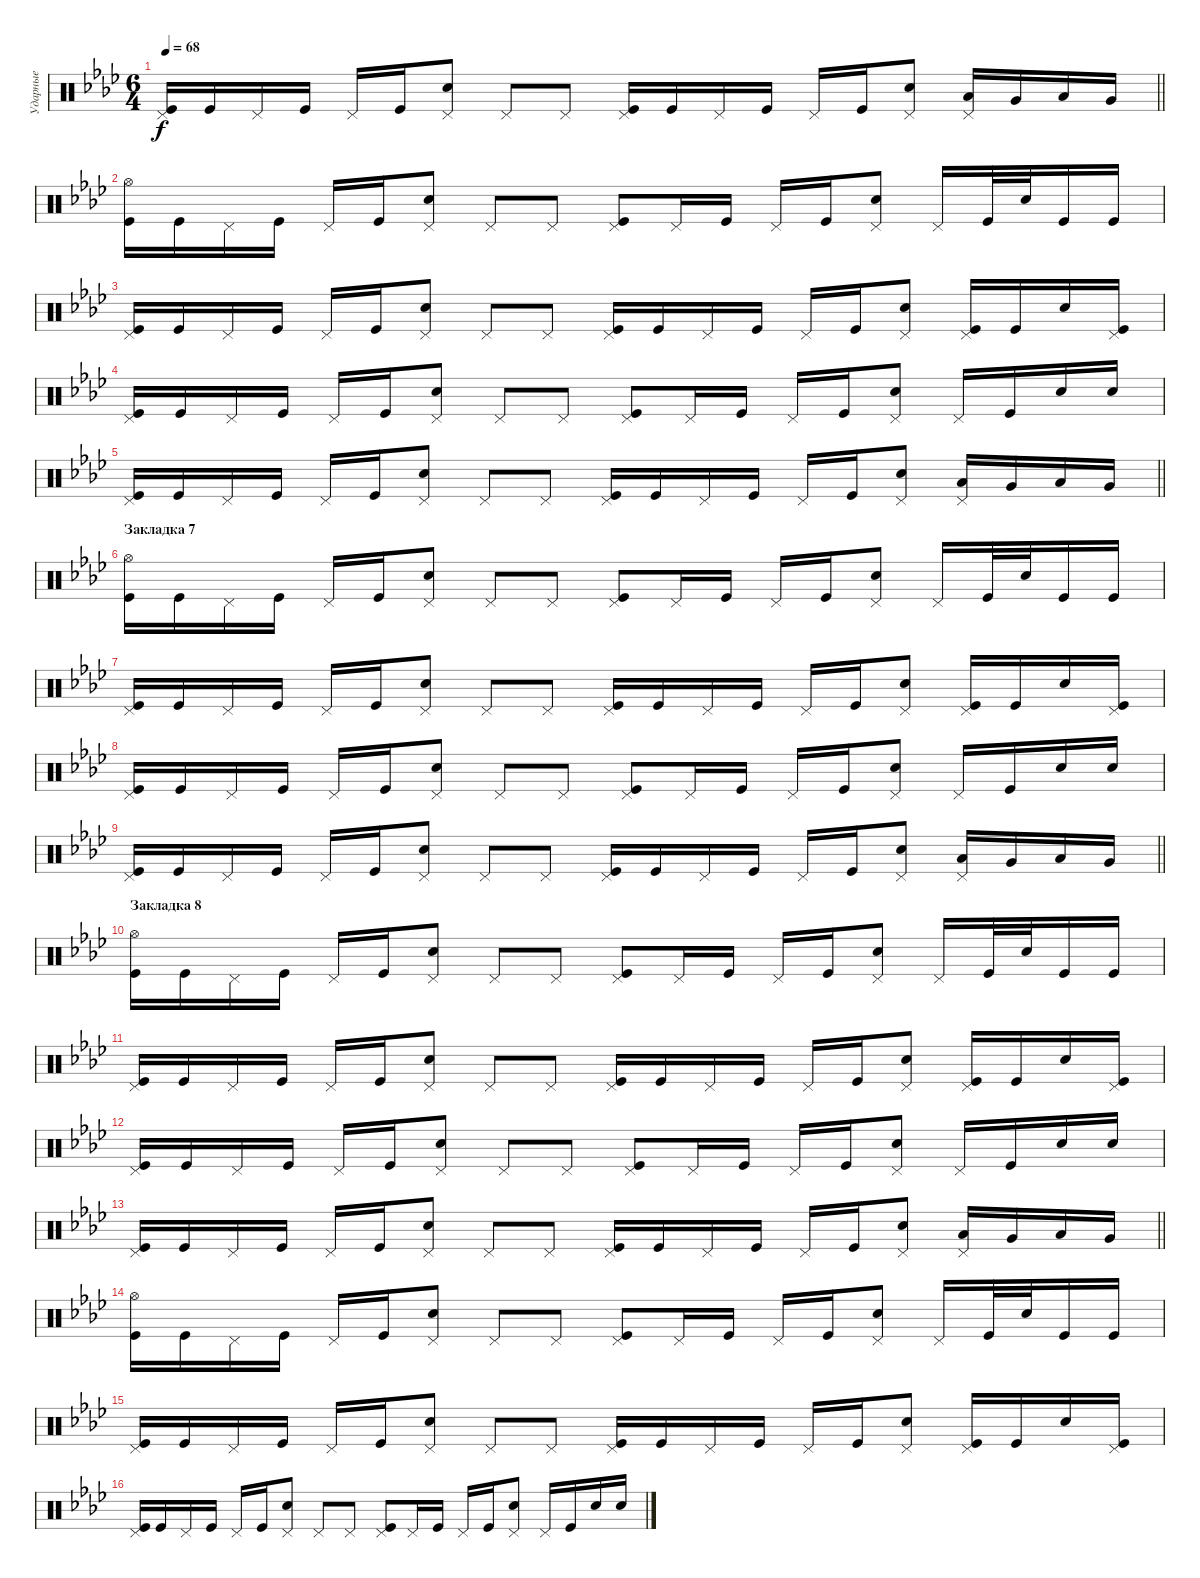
\track ("Ударные" "Ударные") {instrument percussion}
\staff {score}
\articulation defaults
\ts (6 4)
\tempo 68
\clef neutral
\barLineRight lightlight
\ks fminor
("Kick (hit)" "Pedal Hi-Hat (hit)").16{dy f} "Kick (hit)".16 "Pedal Hi-Hat (hit)".16 "Kick (hit)".16 "Pedal Hi-Hat (hit)".16 "Kick (hit)".16 ("Snare (hit) 2" "Pedal Hi-Hat (hit)").8 "Pedal Hi-Hat (hit)".8 "Pedal Hi-Hat (hit)".8 ("Kick (hit)" "Pedal Hi-Hat (hit)").16 "Kick (hit)".16 "Pedal Hi-Hat (hit)".16 "Kick (hit)".16 "Pedal Hi-Hat (hit)".16 "Kick (hit)".16 ("Snare (hit) 2" "Pedal Hi-Hat (hit)").8 ("Low Floor Tom (hit)" "Pedal Hi-Hat (hit)").16 "Very Low Tom (hit)".16 "Low Tom (hit)".16 "Very Low Tom (hit)".16 |
("Kick (hit)" "Hi-Hat (open)").16 "Kick (hit)".16 "Pedal Hi-Hat (hit)".16 "Kick (hit)".16 "Pedal Hi-Hat (hit)".16 "Kick (hit)".16 ("Snare (hit) 2" "Pedal Hi-Hat (hit)").8 "Pedal Hi-Hat (hit)".8 "Pedal Hi-Hat (hit)".8 ("Kick (hit)" "Pedal Hi-Hat (hit)").8 "Pedal Hi-Hat (hit)".16 "Kick (hit)".16 "Pedal Hi-Hat (hit)".16 "Kick (hit)".16 ("Snare (hit) 2" "Pedal Hi-Hat (hit)").8 "Pedal Hi-Hat (hit)".16 "Kick (hit)".32 "Snare (hit) 2".32 "Kick (hit)".16 "Kick (hit)".16 |
("Kick (hit)" "Pedal Hi-Hat (hit)").16 "Kick (hit)".16 "Pedal Hi-Hat (hit)".16 "Kick (hit)".16 "Pedal Hi-Hat (hit)".16 "Kick (hit)".16 ("Snare (hit) 2" "Pedal Hi-Hat (hit)").8 "Pedal Hi-Hat (hit)".8 "Pedal Hi-Hat (hit)".8 ("Kick (hit)" "Pedal Hi-Hat (hit)").16 "Kick (hit)".16 "Pedal Hi-Hat (hit)".16 "Kick (hit)".16 "Pedal Hi-Hat (hit)".16 "Kick (hit)".16 ("Snare (hit) 2" "Pedal Hi-Hat (hit)").8 ("Kick (hit)" "Pedal Hi-Hat (hit)").16 "Kick (hit)".16 "Snare (hit) 2".16 ("Kick (hit)" "Pedal Hi-Hat (hit)").16 |
("Kick (hit)" "Pedal Hi-Hat (hit)").16 "Kick (hit)".16 "Pedal Hi-Hat (hit)".16 "Kick (hit)".16 "Pedal Hi-Hat (hit)".16 "Kick (hit)".16 ("Snare (hit) 2" "Pedal Hi-Hat (hit)").8 "Pedal Hi-Hat (hit)".8 "Pedal Hi-Hat (hit)".8 ("Kick (hit)" "Pedal Hi-Hat (hit)").8 "Pedal Hi-Hat (hit)".16 "Kick (hit)".16 "Pedal Hi-Hat (hit)".16 "Kick (hit)".16 ("Snare (hit) 2" "Pedal Hi-Hat (hit)").8 "Pedal Hi-Hat (hit)".16 "Kick (hit)".16 "Snare (hit) 2".16 "Snare (hit) 2".16 |
\barLineRight lightlight
("Kick (hit)" "Pedal Hi-Hat (hit)").16 "Kick (hit)".16 "Pedal Hi-Hat (hit)".16 "Kick (hit)".16 "Pedal Hi-Hat (hit)".16 "Kick (hit)".16 ("Snare (hit) 2" "Pedal Hi-Hat (hit)").8 "Pedal Hi-Hat (hit)".8 "Pedal Hi-Hat (hit)".8 ("Kick (hit)" "Pedal Hi-Hat (hit)").16 "Kick (hit)".16 "Pedal Hi-Hat (hit)".16 "Kick (hit)".16 "Pedal Hi-Hat (hit)".16 "Kick (hit)".16 ("Snare (hit) 2" "Pedal Hi-Hat (hit)").8 ("Low Floor Tom (hit)" "Pedal Hi-Hat (hit)").16 "Very Low Tom (hit)".16 "Low Tom (hit)".16 "Very Low Tom (hit)".16 |
\section ("" "Закладка 7")
("Kick (hit)" "Hi-Hat (open)").16 "Kick (hit)".16 "Pedal Hi-Hat (hit)".16 "Kick (hit)".16 "Pedal Hi-Hat (hit)".16 "Kick (hit)".16 ("Snare (hit) 2" "Pedal Hi-Hat (hit)").8 "Pedal Hi-Hat (hit)".8 "Pedal Hi-Hat (hit)".8 ("Kick (hit)" "Pedal Hi-Hat (hit)").8 "Pedal Hi-Hat (hit)".16 "Kick (hit)".16 "Pedal Hi-Hat (hit)".16 "Kick (hit)".16 ("Snare (hit) 2" "Pedal Hi-Hat (hit)").8 "Pedal Hi-Hat (hit)".16 "Kick (hit)".32 "Snare (hit) 2".32 "Kick (hit)".16 "Kick (hit)".16 |
("Kick (hit)" "Pedal Hi-Hat (hit)").16 "Kick (hit)".16 "Pedal Hi-Hat (hit)".16 "Kick (hit)".16 "Pedal Hi-Hat (hit)".16 "Kick (hit)".16 ("Snare (hit) 2" "Pedal Hi-Hat (hit)").8 "Pedal Hi-Hat (hit)".8 "Pedal Hi-Hat (hit)".8 ("Kick (hit)" "Pedal Hi-Hat (hit)").16 "Kick (hit)".16 "Pedal Hi-Hat (hit)".16 "Kick (hit)".16 "Pedal Hi-Hat (hit)".16 "Kick (hit)".16 ("Snare (hit) 2" "Pedal Hi-Hat (hit)").8 ("Kick (hit)" "Pedal Hi-Hat (hit)").16 "Kick (hit)".16 "Snare (hit) 2".16 ("Kick (hit)" "Pedal Hi-Hat (hit)").16 |
("Kick (hit)" "Pedal Hi-Hat (hit)").16 "Kick (hit)".16 "Pedal Hi-Hat (hit)".16 "Kick (hit)".16 "Pedal Hi-Hat (hit)".16 "Kick (hit)".16 ("Snare (hit) 2" "Pedal Hi-Hat (hit)").8 "Pedal Hi-Hat (hit)".8 "Pedal Hi-Hat (hit)".8 ("Kick (hit)" "Pedal Hi-Hat (hit)").8 "Pedal Hi-Hat (hit)".16 "Kick (hit)".16 "Pedal Hi-Hat (hit)".16 "Kick (hit)".16 ("Snare (hit) 2" "Pedal Hi-Hat (hit)").8 "Pedal Hi-Hat (hit)".16 "Kick (hit)".16 "Snare (hit) 2".16 "Snare (hit) 2".16 |
\barLineRight lightlight
("Kick (hit)" "Pedal Hi-Hat (hit)").16 "Kick (hit)".16 "Pedal Hi-Hat (hit)".16 "Kick (hit)".16 "Pedal Hi-Hat (hit)".16 "Kick (hit)".16 ("Snare (hit) 2" "Pedal Hi-Hat (hit)").8 "Pedal Hi-Hat (hit)".8 "Pedal Hi-Hat (hit)".8 ("Kick (hit)" "Pedal Hi-Hat (hit)").16 "Kick (hit)".16 "Pedal Hi-Hat (hit)".16 "Kick (hit)".16 "Pedal Hi-Hat (hit)".16 "Kick (hit)".16 ("Snare (hit) 2" "Pedal Hi-Hat (hit)").8 ("Low Floor Tom (hit)" "Pedal Hi-Hat (hit)").16 "Very Low Tom (hit)".16 "Low Tom (hit)".16 "Very Low Tom (hit)".16 |
\section ("" "Закладка 8")
("Kick (hit)" "Hi-Hat (open)").16 "Kick (hit)".16 "Pedal Hi-Hat (hit)".16 "Kick (hit)".16 "Pedal Hi-Hat (hit)".16 "Kick (hit)".16 ("Snare (hit) 2" "Pedal Hi-Hat (hit)").8 "Pedal Hi-Hat (hit)".8 "Pedal Hi-Hat (hit)".8 ("Kick (hit)" "Pedal Hi-Hat (hit)").8 "Pedal Hi-Hat (hit)".16 "Kick (hit)".16 "Pedal Hi-Hat (hit)".16 "Kick (hit)".16 ("Snare (hit) 2" "Pedal Hi-Hat (hit)").8 "Pedal Hi-Hat (hit)".16 "Kick (hit)".32 "Snare (hit) 2".32 "Kick (hit)".16 "Kick (hit)".16 |
("Kick (hit)" "Pedal Hi-Hat (hit)").16 "Kick (hit)".16 "Pedal Hi-Hat (hit)".16 "Kick (hit)".16 "Pedal Hi-Hat (hit)".16 "Kick (hit)".16 ("Snare (hit) 2" "Pedal Hi-Hat (hit)").8 "Pedal Hi-Hat (hit)".8 "Pedal Hi-Hat (hit)".8 ("Kick (hit)" "Pedal Hi-Hat (hit)").16 "Kick (hit)".16 "Pedal Hi-Hat (hit)".16 "Kick (hit)".16 "Pedal Hi-Hat (hit)".16 "Kick (hit)".16 ("Snare (hit) 2" "Pedal Hi-Hat (hit)").8 ("Kick (hit)" "Pedal Hi-Hat (hit)").16 "Kick (hit)".16 "Snare (hit) 2".16 ("Kick (hit)" "Pedal Hi-Hat (hit)").16 |
("Kick (hit)" "Pedal Hi-Hat (hit)").16 "Kick (hit)".16 "Pedal Hi-Hat (hit)".16 "Kick (hit)".16 "Pedal Hi-Hat (hit)".16 "Kick (hit)".16 ("Snare (hit) 2" "Pedal Hi-Hat (hit)").8 "Pedal Hi-Hat (hit)".8 "Pedal Hi-Hat (hit)".8 ("Kick (hit)" "Pedal Hi-Hat (hit)").8 "Pedal Hi-Hat (hit)".16 "Kick (hit)".16 "Pedal Hi-Hat (hit)".16 "Kick (hit)".16 ("Snare (hit) 2" "Pedal Hi-Hat (hit)").8 "Pedal Hi-Hat (hit)".16 "Kick (hit)".16 "Snare (hit) 2".16 "Snare (hit) 2".16 |
\barLineRight lightlight
("Kick (hit)" "Pedal Hi-Hat (hit)").16 "Kick (hit)".16 "Pedal Hi-Hat (hit)".16 "Kick (hit)".16 "Pedal Hi-Hat (hit)".16 "Kick (hit)".16 ("Snare (hit) 2" "Pedal Hi-Hat (hit)").8 "Pedal Hi-Hat (hit)".8 "Pedal Hi-Hat (hit)".8 ("Kick (hit)" "Pedal Hi-Hat (hit)").16 "Kick (hit)".16 "Pedal Hi-Hat (hit)".16 "Kick (hit)".16 "Pedal Hi-Hat (hit)".16 "Kick (hit)".16 ("Snare (hit) 2" "Pedal Hi-Hat (hit)").8 ("Low Floor Tom (hit)" "Pedal Hi-Hat (hit)").16 "Very Low Tom (hit)".16 "Low Tom (hit)".16 "Very Low Tom (hit)".16 |
("Kick (hit)" "Hi-Hat (open)").16 "Kick (hit)".16 "Pedal Hi-Hat (hit)".16 "Kick (hit)".16 "Pedal Hi-Hat (hit)".16 "Kick (hit)".16 ("Snare (hit) 2" "Pedal Hi-Hat (hit)").8 "Pedal Hi-Hat (hit)".8 "Pedal Hi-Hat (hit)".8 ("Kick (hit)" "Pedal Hi-Hat (hit)").8 "Pedal Hi-Hat (hit)".16 "Kick (hit)".16 "Pedal Hi-Hat (hit)".16 "Kick (hit)".16 ("Snare (hit) 2" "Pedal Hi-Hat (hit)").8 "Pedal Hi-Hat (hit)".16 "Kick (hit)".32 "Snare (hit) 2".32 "Kick (hit)".16 "Kick (hit)".16 |
("Kick (hit)" "Pedal Hi-Hat (hit)").16 "Kick (hit)".16 "Pedal Hi-Hat (hit)".16 "Kick (hit)".16 "Pedal Hi-Hat (hit)".16 "Kick (hit)".16 ("Snare (hit) 2" "Pedal Hi-Hat (hit)").8 "Pedal Hi-Hat (hit)".8 "Pedal Hi-Hat (hit)".8 ("Kick (hit)" "Pedal Hi-Hat (hit)").16 "Kick (hit)".16 "Pedal Hi-Hat (hit)".16 "Kick (hit)".16 "Pedal Hi-Hat (hit)".16 "Kick (hit)".16 ("Snare (hit) 2" "Pedal Hi-Hat (hit)").8 ("Kick (hit)" "Pedal Hi-Hat (hit)").16 "Kick (hit)".16 "Snare (hit) 2".16 ("Kick (hit)" "Pedal Hi-Hat (hit)").16 |
("Kick (hit)" "Pedal Hi-Hat (hit)").16 "Kick (hit)".16 "Pedal Hi-Hat (hit)".16 "Kick (hit)".16 "Pedal Hi-Hat (hit)".16 "Kick (hit)".16 ("Snare (hit) 2" "Pedal Hi-Hat (hit)").8 "Pedal Hi-Hat (hit)".8 "Pedal Hi-Hat (hit)".8 ("Kick (hit)" "Pedal Hi-Hat (hit)").8 "Pedal Hi-Hat (hit)".16 "Kick (hit)".16 "Pedal Hi-Hat (hit)".16 "Kick (hit)".16 ("Snare (hit) 2" "Pedal Hi-Hat (hit)").8 "Pedal Hi-Hat (hit)".16 "Kick (hit)".16 "Snare (hit) 2".16 "Snare (hit) 2".16
